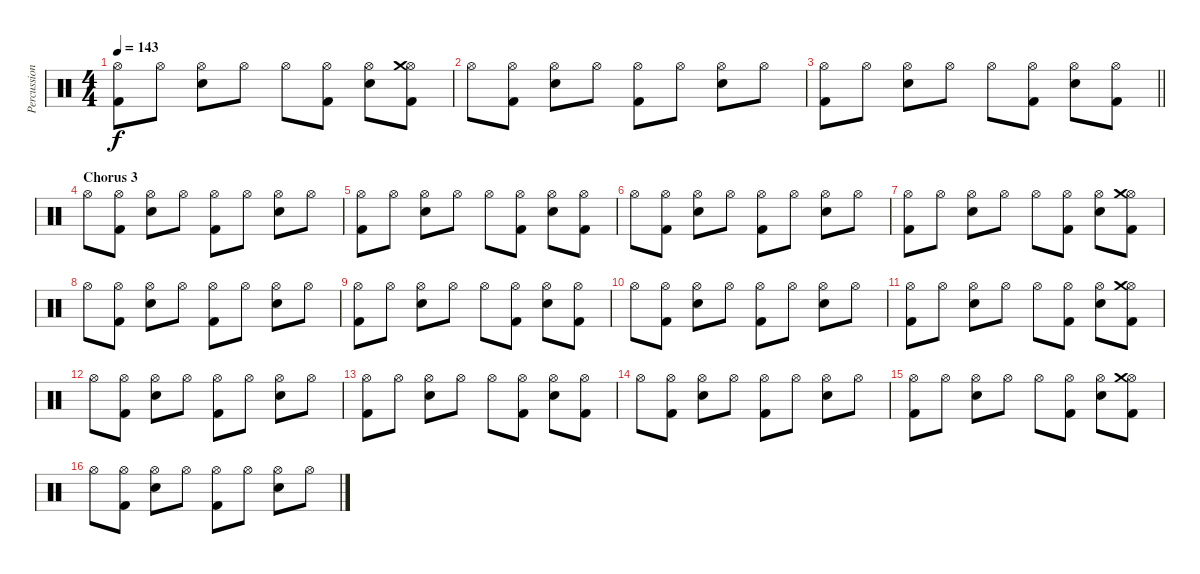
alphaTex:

\track ("Percussion" "Percussion") {instrument percussion}
\staff {score}
\articulation defaults
\ts (4 4)
\tempo 143
\clef neutral
\ks c
("Hi-Hat (open)" "Kick (hit) 2").8{dy f} "Hi-Hat (open)".8 ("Hi-Hat (open)" "Snare (hit) 2").8 "Hi-Hat (open)".8 "Hi-Hat (open)".8 ("Hi-Hat (open)" "Kick (hit) 2").8 ("Hi-Hat (open)" "Snare (hit) 2").8 ("Hi-Hat (open)" "Crash medium (hit)" "Kick (hit) 2").8 |
"Hi-Hat (open)".8 ("Hi-Hat (open)" "Kick (hit) 2").8 ("Hi-Hat (open)" "Snare (hit) 2").8 "Hi-Hat (open)".8 ("Hi-Hat (open)" "Kick (hit) 2").8 "Hi-Hat (open)".8 ("Hi-Hat (open)" "Snare (hit) 2").8 "Hi-Hat (open)".8 |
\barLineRight lightlight
("Hi-Hat (open)" "Kick (hit) 2").8 "Hi-Hat (open)".8 ("Hi-Hat (open)" "Snare (hit) 2").8 "Hi-Hat (open)".8 "Hi-Hat (open)".8 ("Hi-Hat (open)" "Kick (hit) 2").8 ("Hi-Hat (open)" "Snare (hit) 2").8 ("Hi-Hat (open)" "Kick (hit) 2").8 |
\section ("" "Chorus 3")
"Hi-Hat (open)".8 ("Hi-Hat (open)" "Kick (hit) 2").8 ("Hi-Hat (open)" "Snare (hit) 2").8 "Hi-Hat (open)".8 ("Hi-Hat (open)" "Kick (hit) 2").8 "Hi-Hat (open)".8 ("Hi-Hat (open)" "Snare (hit) 2").8 "Hi-Hat (open)".8 |
("Hi-Hat (open)" "Kick (hit) 2").8 "Hi-Hat (open)".8 ("Hi-Hat (open)" "Snare (hit) 2").8 "Hi-Hat (open)".8 "Hi-Hat (open)".8 ("Hi-Hat (open)" "Kick (hit) 2").8 ("Hi-Hat (open)" "Snare (hit) 2").8 ("Hi-Hat (open)" "Kick (hit) 2").8 |
"Hi-Hat (open)".8 ("Hi-Hat (open)" "Kick (hit) 2").8 ("Hi-Hat (open)" "Snare (hit) 2").8 "Hi-Hat (open)".8 ("Hi-Hat (open)" "Kick (hit) 2").8 "Hi-Hat (open)".8 ("Hi-Hat (open)" "Snare (hit) 2").8 "Hi-Hat (open)".8 |
("Hi-Hat (open)" "Kick (hit) 2").8 "Hi-Hat (open)".8 ("Hi-Hat (open)" "Snare (hit) 2").8 "Hi-Hat (open)".8 "Hi-Hat (open)".8 ("Hi-Hat (open)" "Kick (hit) 2").8 ("Hi-Hat (open)" "Snare (hit) 2").8 ("Hi-Hat (open)" "Crash medium (hit)" "Kick (hit) 2").8 |
"Hi-Hat (open)".8 ("Hi-Hat (open)" "Kick (hit) 2").8 ("Hi-Hat (open)" "Snare (hit) 2").8 "Hi-Hat (open)".8 ("Hi-Hat (open)" "Kick (hit) 2").8 "Hi-Hat (open)".8 ("Hi-Hat (open)" "Snare (hit) 2").8 "Hi-Hat (open)".8 |
("Hi-Hat (open)" "Kick (hit) 2").8 "Hi-Hat (open)".8 ("Hi-Hat (open)" "Snare (hit) 2").8 "Hi-Hat (open)".8 "Hi-Hat (open)".8 ("Hi-Hat (open)" "Kick (hit) 2").8 ("Hi-Hat (open)" "Snare (hit) 2").8 ("Hi-Hat (open)" "Kick (hit) 2").8 |
"Hi-Hat (open)".8 ("Hi-Hat (open)" "Kick (hit) 2").8 ("Hi-Hat (open)" "Snare (hit) 2").8 "Hi-Hat (open)".8 ("Hi-Hat (open)" "Kick (hit) 2").8 "Hi-Hat (open)".8 ("Hi-Hat (open)" "Snare (hit) 2").8 "Hi-Hat (open)".8 |
("Hi-Hat (open)" "Kick (hit) 2").8 "Hi-Hat (open)".8 ("Hi-Hat (open)" "Snare (hit) 2").8 "Hi-Hat (open)".8 "Hi-Hat (open)".8 ("Hi-Hat (open)" "Kick (hit) 2").8 ("Hi-Hat (open)" "Snare (hit) 2").8 ("Hi-Hat (open)" "Crash medium (hit)" "Kick (hit) 2").8 |
"Hi-Hat (open)".8 ("Hi-Hat (open)" "Kick (hit) 2").8 ("Hi-Hat (open)" "Snare (hit) 2").8 "Hi-Hat (open)".8 ("Hi-Hat (open)" "Kick (hit) 2").8 "Hi-Hat (open)".8 ("Hi-Hat (open)" "Snare (hit) 2").8 "Hi-Hat (open)".8 |
("Hi-Hat (open)" "Kick (hit) 2").8 "Hi-Hat (open)".8 ("Hi-Hat (open)" "Snare (hit) 2").8 "Hi-Hat (open)".8 "Hi-Hat (open)".8 ("Hi-Hat (open)" "Kick (hit) 2").8 ("Hi-Hat (open)" "Snare (hit) 2").8 ("Hi-Hat (open)" "Kick (hit) 2").8 |
"Hi-Hat (open)".8 ("Hi-Hat (open)" "Kick (hit) 2").8 ("Hi-Hat (open)" "Snare (hit) 2").8 "Hi-Hat (open)".8 ("Hi-Hat (open)" "Kick (hit) 2").8 "Hi-Hat (open)".8 ("Hi-Hat (open)" "Snare (hit) 2").8 "Hi-Hat (open)".8 |
("Hi-Hat (open)" "Kick (hit) 2").8 "Hi-Hat (open)".8 ("Hi-Hat (open)" "Snare (hit) 2").8 "Hi-Hat (open)".8 "Hi-Hat (open)".8 ("Hi-Hat (open)" "Kick (hit) 2").8 ("Hi-Hat (open)" "Snare (hit) 2").8 ("Hi-Hat (open)" "Crash medium (hit)" "Kick (hit) 2").8 |
"Hi-Hat (open)".8 ("Hi-Hat (open)" "Kick (hit) 2").8 ("Hi-Hat (open)" "Snare (hit) 2").8 "Hi-Hat (open)".8 ("Hi-Hat (open)" "Kick (hit) 2").8 "Hi-Hat (open)".8 ("Hi-Hat (open)" "Snare (hit) 2").8 "Hi-Hat (open)".8
